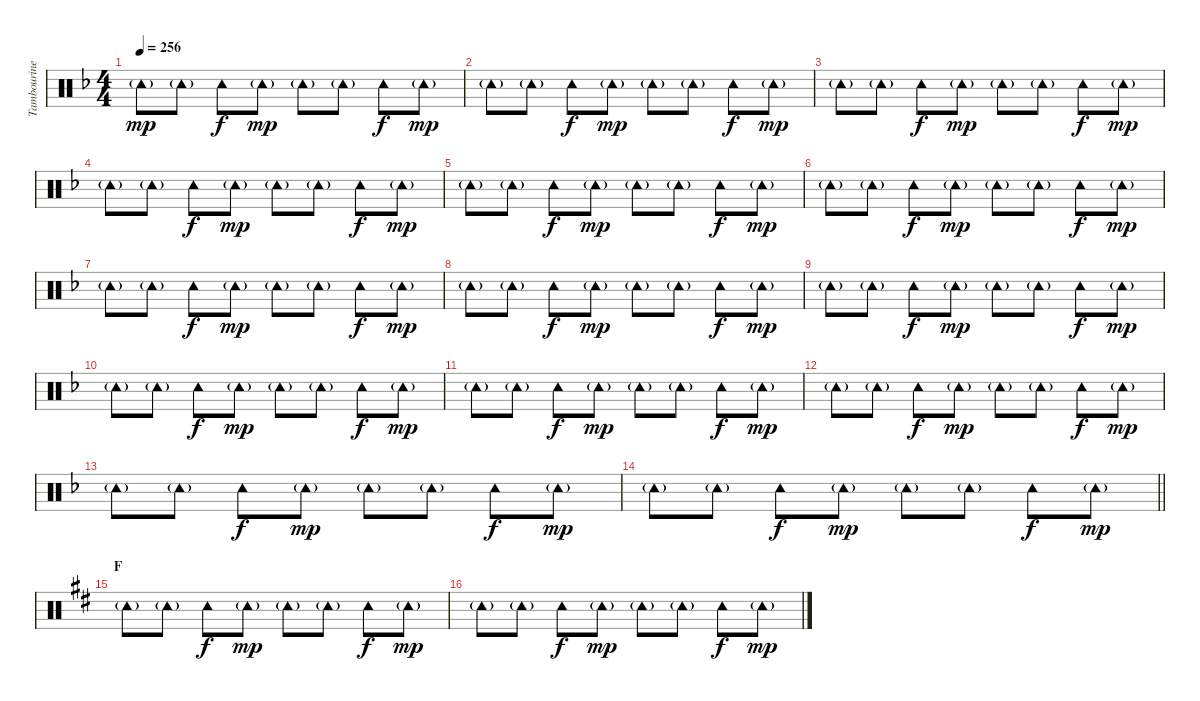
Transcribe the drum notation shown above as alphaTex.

\track ("Tambourine" "Tambourine") {instrument percussion}
\staff {score}
\articulation defaults
\ts (4 4)
\tempo 256
\clef neutral
\ks f "Tambourine (hit)"{g}.8{dy mp} "Tambourine (hit)"{g}.8 "Tambourine (hit)".8{dy f} "Tambourine (hit)"{g}.8{dy mp} "Tambourine (hit)"{g}.8 "Tambourine (hit)"{g}.8 "Tambourine (hit)".8{dy f} "Tambourine (hit)"{g}.8{dy mp}
|
"Tambourine (hit)"{g}.8 "Tambourine (hit)"{g}.8 "Tambourine (hit)".8{dy f} "Tambourine (hit)"{g}.8{dy mp} "Tambourine (hit)"{g}.8 "Tambourine (hit)"{g}.8 "Tambourine (hit)".8{dy f} "Tambourine (hit)"{g}.8{dy mp} |
"Tambourine (hit)"{g}.8 "Tambourine (hit)"{g}.8 "Tambourine (hit)".8{dy f} "Tambourine (hit)"{g}.8{dy mp} "Tambourine (hit)"{g}.8 "Tambourine (hit)"{g}.8 "Tambourine (hit)".8{dy f} "Tambourine (hit)"{g}.8{dy mp} |
"Tambourine (hit)"{g}.8 "Tambourine (hit)"{g}.8 "Tambourine (hit)".8{dy f} "Tambourine (hit)"{g}.8{dy mp} "Tambourine (hit)"{g}.8 "Tambourine (hit)"{g}.8 "Tambourine (hit)".8{dy f} "Tambourine (hit)"{g}.8{dy mp} |
"Tambourine (hit)"{g}.8 "Tambourine (hit)"{g}.8 "Tambourine (hit)".8{dy f} "Tambourine (hit)"{g}.8{dy mp} "Tambourine (hit)"{g}.8 "Tambourine (hit)"{g}.8 "Tambourine (hit)".8{dy f} "Tambourine (hit)"{g}.8{dy mp} |
"Tambourine (hit)"{g}.8 "Tambourine (hit)"{g}.8 "Tambourine (hit)".8{dy f} "Tambourine (hit)"{g}.8{dy mp} "Tambourine (hit)"{g}.8 "Tambourine (hit)"{g}.8 "Tambourine (hit)".8{dy f} "Tambourine (hit)"{g}.8{dy mp} |
"Tambourine (hit)"{g}.8 "Tambourine (hit)"{g}.8 "Tambourine (hit)".8{dy f} "Tambourine (hit)"{g}.8{dy mp} "Tambourine (hit)"{g}.8 "Tambourine (hit)"{g}.8 "Tambourine (hit)".8{dy f} "Tambourine (hit)"{g}.8{dy mp} |
"Tambourine (hit)"{g}.8 "Tambourine (hit)"{g}.8 "Tambourine (hit)".8{dy f} "Tambourine (hit)"{g}.8{dy mp} "Tambourine (hit)"{g}.8 "Tambourine (hit)"{g}.8 "Tambourine (hit)".8{dy f} "Tambourine (hit)"{g}.8{dy mp} |
"Tambourine (hit)"{g}.8 "Tambourine (hit)"{g}.8 "Tambourine (hit)".8{dy f} "Tambourine (hit)"{g}.8{dy mp} "Tambourine (hit)"{g}.8 "Tambourine (hit)"{g}.8 "Tambourine (hit)".8{dy f} "Tambourine (hit)"{g}.8{dy mp} |
"Tambourine (hit)"{g}.8 "Tambourine (hit)"{g}.8 "Tambourine (hit)".8{dy f} "Tambourine (hit)"{g}.8{dy mp} "Tambourine (hit)"{g}.8 "Tambourine (hit)"{g}.8 "Tambourine (hit)".8{dy f} "Tambourine (hit)"{g}.8{dy mp} |
"Tambourine (hit)"{g}.8 "Tambourine (hit)"{g}.8 "Tambourine (hit)".8{dy f} "Tambourine (hit)"{g}.8{dy mp} "Tambourine (hit)"{g}.8 "Tambourine (hit)"{g}.8 "Tambourine (hit)".8{dy f} "Tambourine (hit)"{g}.8{dy mp} |
"Tambourine (hit)"{g}.8 "Tambourine (hit)"{g}.8 "Tambourine (hit)".8{dy f} "Tambourine (hit)"{g}.8{dy mp} "Tambourine (hit)"{g}.8 "Tambourine (hit)"{g}.8 "Tambourine (hit)".8{dy f} "Tambourine (hit)"{g}.8{dy mp} |
"Tambourine (hit)"{g}.8 "Tambourine (hit)"{g}.8 "Tambourine (hit)".8{dy f} "Tambourine (hit)"{g}.8{dy mp} "Tambourine (hit)"{g}.8 "Tambourine (hit)"{g}.8 "Tambourine (hit)".8{dy f} "Tambourine (hit)"{g}.8{dy mp} |
\barLineRight lightlight "Tambourine (hit)"{g}.8 "Tambourine (hit)"{g}.8 "Tambourine (hit)".8{dy f} "Tambourine (hit)"{g}.8{dy mp} "Tambourine (hit)"{g}.8 "Tambourine (hit)"{g}.8 "Tambourine (hit)".8{dy f} "Tambourine (hit)"{g}.8{dy mp}
|
\section ("" "F")
\ks d "Tambourine (hit)"{g}.8 "Tambourine (hit)"{g}.8 "Tambourine (hit)".8{dy f} "Tambourine (hit)"{g}.8{dy mp} "Tambourine (hit)"{g}.8 "Tambourine (hit)"{g}.8 "Tambourine (hit)".8{dy f} "Tambourine (hit)"{g}.8{dy mp}
|
"Tambourine (hit)"{g}.8 "Tambourine (hit)"{g}.8 "Tambourine (hit)".8{dy f} "Tambourine (hit)"{g}.8{dy mp} "Tambourine (hit)"{g}.8 "Tambourine (hit)"{g}.8 "Tambourine (hit)".8{dy f} "Tambourine (hit)"{g}.8{dy mp}
